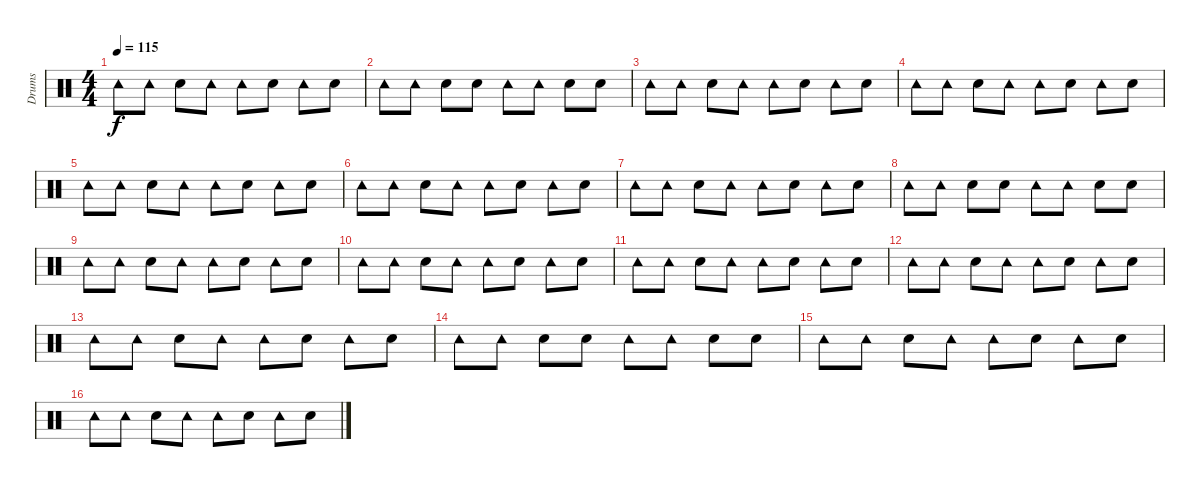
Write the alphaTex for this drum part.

\track ("Drums" "Drums") {instrument percussion}
\staff {score}
\articulation defaults
\ts (4 4)
\tempo 115
\clef neutral
\ks c "Tambourine (hit)".8{dy f} "Tambourine (hit)".8 "Electric Snare (hit)".8 "Tambourine (hit)".8 "Tambourine (hit)".8 "Electric Snare (hit)".8 "Tambourine (hit)".8 "Electric Snare (hit)".8
|
"Tambourine (hit)".8 "Tambourine (hit)".8 "Snare (hit) 2".8 "Electric Snare (hit)".8 "Tambourine (hit)".8 "Tambourine (hit)".8 "Electric Snare (hit)".8 "Snare (hit) 2".8 |
"Tambourine (hit)".8 "Tambourine (hit)".8 "Electric Snare (hit)".8 "Tambourine (hit)".8 "Tambourine (hit)".8 "Electric Snare (hit)".8 "Tambourine (hit)".8 "Electric Snare (hit)".8 |
"Tambourine (hit)".8 "Tambourine (hit)".8 "Electric Snare (hit)".8 "Tambourine (hit)".8 "Tambourine (hit)".8 "Electric Snare (hit)".8 "Tambourine (hit)".8 "Electric Snare (hit)".8 |
"Tambourine (hit)".8 "Tambourine (hit)".8 "Electric Snare (hit)".8 "Tambourine (hit)".8 "Tambourine (hit)".8 "Electric Snare (hit)".8 "Tambourine (hit)".8 "Electric Snare (hit)".8 |
"Tambourine (hit)".8 "Tambourine (hit)".8 "Electric Snare (hit)".8 "Tambourine (hit)".8 "Tambourine (hit)".8 "Electric Snare (hit)".8 "Tambourine (hit)".8 "Electric Snare (hit)".8 |
"Tambourine (hit)".8 "Tambourine (hit)".8 "Electric Snare (hit)".8 "Tambourine (hit)".8 "Tambourine (hit)".8 "Electric Snare (hit)".8 "Tambourine (hit)".8 "Electric Snare (hit)".8 |
"Tambourine (hit)".8 "Tambourine (hit)".8 "Snare (hit) 2".8 "Electric Snare (hit)".8 "Tambourine (hit)".8 "Tambourine (hit)".8 "Electric Snare (hit)".8 "Snare (hit) 2".8 |
"Tambourine (hit)".8 "Tambourine (hit)".8 "Electric Snare (hit)".8 "Tambourine (hit)".8 "Tambourine (hit)".8 "Electric Snare (hit)".8 "Tambourine (hit)".8 "Electric Snare (hit)".8 |
"Tambourine (hit)".8 "Tambourine (hit)".8 "Electric Snare (hit)".8 "Tambourine (hit)".8 "Tambourine (hit)".8 "Electric Snare (hit)".8 "Tambourine (hit)".8 "Electric Snare (hit)".8 |
"Tambourine (hit)".8 "Tambourine (hit)".8 "Electric Snare (hit)".8 "Tambourine (hit)".8 "Tambourine (hit)".8 "Electric Snare (hit)".8 "Tambourine (hit)".8 "Electric Snare (hit)".8 |
"Tambourine (hit)".8 "Tambourine (hit)".8 "Electric Snare (hit)".8 "Tambourine (hit)".8 "Tambourine (hit)".8 "Electric Snare (hit)".8 "Tambourine (hit)".8 "Electric Snare (hit)".8 |
"Tambourine (hit)".8 "Tambourine (hit)".8 "Electric Snare (hit)".8 "Tambourine (hit)".8 "Tambourine (hit)".8 "Electric Snare (hit)".8 "Tambourine (hit)".8 "Electric Snare (hit)".8 |
"Tambourine (hit)".8 "Tambourine (hit)".8 "Snare (hit) 2".8 "Electric Snare (hit)".8 "Tambourine (hit)".8 "Tambourine (hit)".8 "Electric Snare (hit)".8 "Snare (hit) 2".8 |
"Tambourine (hit)".8 "Tambourine (hit)".8 "Electric Snare (hit)".8 "Tambourine (hit)".8 "Tambourine (hit)".8 "Electric Snare (hit)".8 "Tambourine (hit)".8 "Electric Snare (hit)".8 |
"Tambourine (hit)".8 "Tambourine (hit)".8 "Electric Snare (hit)".8 "Tambourine (hit)".8 "Tambourine (hit)".8 "Electric Snare (hit)".8 "Tambourine (hit)".8 "Electric Snare (hit)".8
